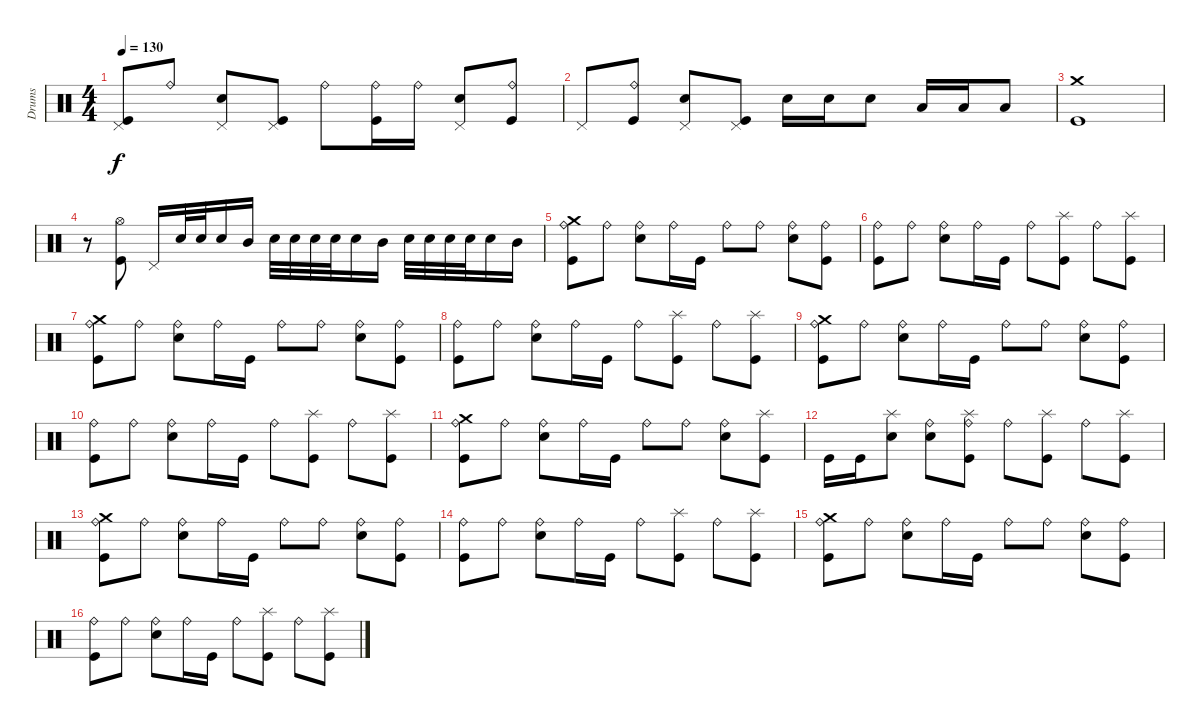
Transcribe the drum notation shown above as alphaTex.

\track ("Drums" "Drums") {instrument percussion}
\staff {score}
\articulation defaults
\ts (4 4)
\tempo 130
\clef neutral
\ks c
("Kick (hit)" "Pedal Hi-Hat (hit)").8{dy f} "Ride (bell)".8 ("Electric Snare (hit)" "Pedal Hi-Hat (hit)").8 ("Kick (hit)" "Pedal Hi-Hat (hit)").8 "Ride (bell)".8 ("Kick (hit)" "Ride (bell)").16 "Ride (bell)".16 ("Electric Snare (hit)" "Pedal Hi-Hat (hit)").8 ("Kick (hit)" "Ride (bell)").8 |
"Pedal Hi-Hat (hit)".8 ("Kick (hit)" "Ride (bell)").8 ("Electric Snare (hit)" "Pedal Hi-Hat (hit)").8 ("Kick (hit)" "Pedal Hi-Hat (hit)").8 "Electric Snare (hit)".16 "Electric Snare (hit)".16 "Electric Snare (hit)".8 "Low Tom (hit)".16 "Low Tom (hit)".16 "Low Tom (hit)".8 |
("Kick (hit)" "Crash medium (hit)").1 |
r.8 ("Kick (hit)" "Hi-Hat (open)").8 "Pedal Hi-Hat (hit)".16 "Electric Snare (hit)".32 "Electric Snare (hit)".32 "Electric Snare (hit)".16 "Mid Tom (hit)".16 "Electric Snare (hit)".32 "Electric Snare (hit)".32 "Electric Snare (hit)".32 "Electric Snare (hit)".32 "Electric Snare (hit)".16 "Mid Tom (hit)".16 "Electric Snare (hit)".32 "Electric Snare (hit)".32 "Electric Snare (hit)".32 "Electric Snare (hit)".32 "Electric Snare (hit)".16 "Mid Tom (hit)".16 |
("Kick (hit)" "Crash medium (hit)" "Ride (bell)").8 "Ride (bell)".8 ("Electric Snare (hit)" "Ride (bell)").8 "Ride (bell)".16 "Kick (hit)".16 "Ride (bell)".8 "Ride (bell)".8 ("Electric Snare (hit)" "Ride (bell)").8 ("Kick (hit)" "Ride (bell)").8 |
("Kick (hit)" "Ride (bell)").8 "Ride (bell)".8 ("Electric Snare (hit)" "Ride (bell)").8 "Ride (bell)".16 "Kick (hit)".16 "Ride (bell)".8 ("Kick (hit)" "Splash (hit)").8 "Ride (bell)".8 ("Kick (hit)" "Splash (hit)").8 |
("Kick (hit)" "Crash medium (hit)" "Ride (bell)").8 "Ride (bell)".8 ("Electric Snare (hit)" "Ride (bell)").8 "Ride (bell)".16 "Kick (hit)".16 "Ride (bell)".8 "Ride (bell)".8 ("Electric Snare (hit)" "Ride (bell)").8 ("Kick (hit)" "Ride (bell)").8 |
("Kick (hit)" "Ride (bell)").8 "Ride (bell)".8 ("Electric Snare (hit)" "Ride (bell)").8 "Ride (bell)".16 "Kick (hit)".16 "Ride (bell)".8 ("Kick (hit)" "Splash (hit)").8 "Ride (bell)".8 ("Kick (hit)" "Splash (hit)").8 |
("Kick (hit)" "Crash medium (hit)" "Ride (bell)").8 "Ride (bell)".8 ("Electric Snare (hit)" "Ride (bell)").8 "Ride (bell)".16 "Kick (hit)".16 "Ride (bell)".8 "Ride (bell)".8 ("Electric Snare (hit)" "Ride (bell)").8 ("Kick (hit)" "Ride (bell)").8 |
("Kick (hit)" "Ride (bell)").8 "Ride (bell)".8 ("Electric Snare (hit)" "Ride (bell)").8 "Ride (bell)".16 "Kick (hit)".16 "Ride (bell)".8 ("Kick (hit)" "Splash (hit)").8 "Ride (bell)".8 ("Kick (hit)" "Splash (hit)").8 |
("Kick (hit)" "Crash medium (hit)" "Ride (bell)").8 "Ride (bell)".8 ("Electric Snare (hit)" "Ride (bell)").8 "Ride (bell)".16 "Kick (hit)".16 "Ride (bell)".8 "Ride (bell)".8 ("Electric Snare (hit)" "Ride (bell)").8 ("Kick (hit)" "Splash (hit)").8 |
"Kick (hit)".16 "Kick (hit)".16 ("Electric Snare (hit)" "Splash (hit)").8 ("Electric Snare (hit)" "Ride (bell)").8 ("Kick (hit)" "Splash (hit)" "Ride (bell)").8 "Ride (bell)".8 ("Kick (hit)" "Splash (hit)").8 "Ride (bell)".8 ("Kick (hit)" "Splash (hit)").8 |
("Kick (hit)" "Crash medium (hit)" "Ride (bell)").8 "Ride (bell)".8 ("Electric Snare (hit)" "Ride (bell)").8 "Ride (bell)".16 "Kick (hit)".16 "Ride (bell)".8 "Ride (bell)".8 ("Electric Snare (hit)" "Ride (bell)").8 ("Kick (hit)" "Ride (bell)").8 |
("Kick (hit)" "Ride (bell)").8 "Ride (bell)".8 ("Electric Snare (hit)" "Ride (bell)").8 "Ride (bell)".16 "Kick (hit)".16 "Ride (bell)".8 ("Kick (hit)" "Splash (hit)").8 "Ride (bell)".8 ("Kick (hit)" "Splash (hit)").8 |
("Kick (hit)" "Crash medium (hit)" "Ride (bell)").8 "Ride (bell)".8 ("Electric Snare (hit)" "Ride (bell)").8 "Ride (bell)".16 "Kick (hit)".16 "Ride (bell)".8 "Ride (bell)".8 ("Electric Snare (hit)" "Ride (bell)").8 ("Kick (hit)" "Ride (bell)").8 |
("Kick (hit)" "Ride (bell)").8 "Ride (bell)".8 ("Electric Snare (hit)" "Ride (bell)").8 "Ride (bell)".16 "Kick (hit)".16 "Ride (bell)".8 ("Kick (hit)" "Splash (hit)").8 "Ride (bell)".8 ("Kick (hit)" "Splash (hit)").8
